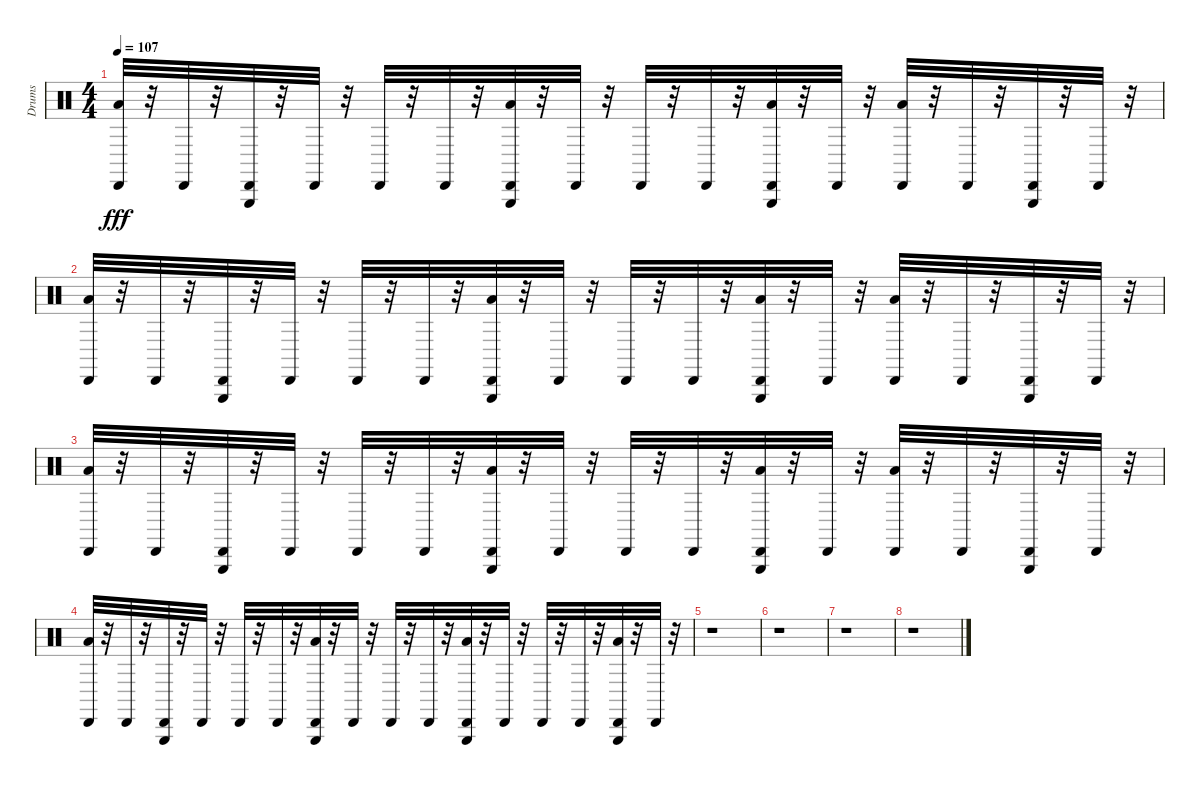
\track ("Drums" "Drums") {instrument percussion}
\staff {score}
\articulation defaults
\ts (4 4)
\tempo 107
\clef neutral
\ks c
("Cabasa (hit)" "Low Floor Tom (hit)").32{dy fff} r.32 "Cabasa (hit)".32 r.32 ("Cabasa (hit)" "Triangle (hit)").32 r.32 "Cabasa (hit)".32 r.32 "Cabasa (hit)".32 r.32 "Cabasa (hit)".32 r.32 ("Cabasa (hit)" "Triangle (hit)" "Low Floor Tom (hit)").32 r.32 "Cabasa (hit)".32 r.32 "Cabasa (hit)".32 r.32 "Cabasa (hit)".32 r.32 ("Cabasa (hit)" "Triangle (hit)" "Low Floor Tom (hit)").32 r.32 "Cabasa (hit)".32 r.32 ("Cabasa (hit)" "Low Floor Tom (hit)").32 r.32 "Cabasa (hit)".32 r.32 ("Cabasa (hit)" "Triangle (hit)").32 r.32 "Cabasa (hit)".32 r.32 |
("Cabasa (hit)" "Low Floor Tom (hit)").32 r.32 "Cabasa (hit)".32 r.32 ("Cabasa (hit)" "Triangle (hit)").32 r.32 "Cabasa (hit)".32 r.32 "Cabasa (hit)".32 r.32 "Cabasa (hit)".32 r.32 ("Cabasa (hit)" "Triangle (hit)" "Low Floor Tom (hit)").32 r.32 "Cabasa (hit)".32 r.32 "Cabasa (hit)".32 r.32 "Cabasa (hit)".32 r.32 ("Cabasa (hit)" "Triangle (hit)" "Low Floor Tom (hit)").32 r.32 "Cabasa (hit)".32 r.32 ("Cabasa (hit)" "Low Floor Tom (hit)").32 r.32 "Cabasa (hit)".32 r.32 ("Cabasa (hit)" "Triangle (hit)").32 r.32 "Cabasa (hit)".32 r.32 |
("Cabasa (hit)" "Low Floor Tom (hit)").32 r.32 "Cabasa (hit)".32 r.32 ("Cabasa (hit)" "Triangle (hit)").32 r.32 "Cabasa (hit)".32 r.32 "Cabasa (hit)".32 r.32 "Cabasa (hit)".32 r.32 ("Cabasa (hit)" "Triangle (hit)" "Low Floor Tom (hit)").32 r.32 "Cabasa (hit)".32 r.32 "Cabasa (hit)".32 r.32 "Cabasa (hit)".32 r.32 ("Cabasa (hit)" "Triangle (hit)" "Low Floor Tom (hit)").32 r.32 "Cabasa (hit)".32 r.32 ("Cabasa (hit)" "Low Floor Tom (hit)").32 r.32 "Cabasa (hit)".32 r.32 ("Cabasa (hit)" "Triangle (hit)").32 r.32 "Cabasa (hit)".32 r.32 |
("Cabasa (hit)" "Low Floor Tom (hit)").32 r.32 "Cabasa (hit)".32 r.32 ("Cabasa (hit)" "Triangle (hit)").32 r.32 "Cabasa (hit)".32 r.32 "Cabasa (hit)".32 r.32 "Cabasa (hit)".32 r.32 ("Cabasa (hit)" "Triangle (hit)" "Low Floor Tom (hit)").32 r.32 "Cabasa (hit)".32 r.32 "Cabasa (hit)".32 r.32 "Cabasa (hit)".32 r.32 ("Cabasa (hit)" "Triangle (hit)" "Low Floor Tom (hit)").32 r.32 "Cabasa (hit)".32 r.32 "Cabasa (hit)".32 r.32 "Cabasa (hit)".32 r.32 ("Cabasa (hit)" "Triangle (hit)" "Low Floor Tom (hit)").32 r.32 "Cabasa (hit)".32 r.32 |
r.1 |
r.1 |
r.1 |
r.1
